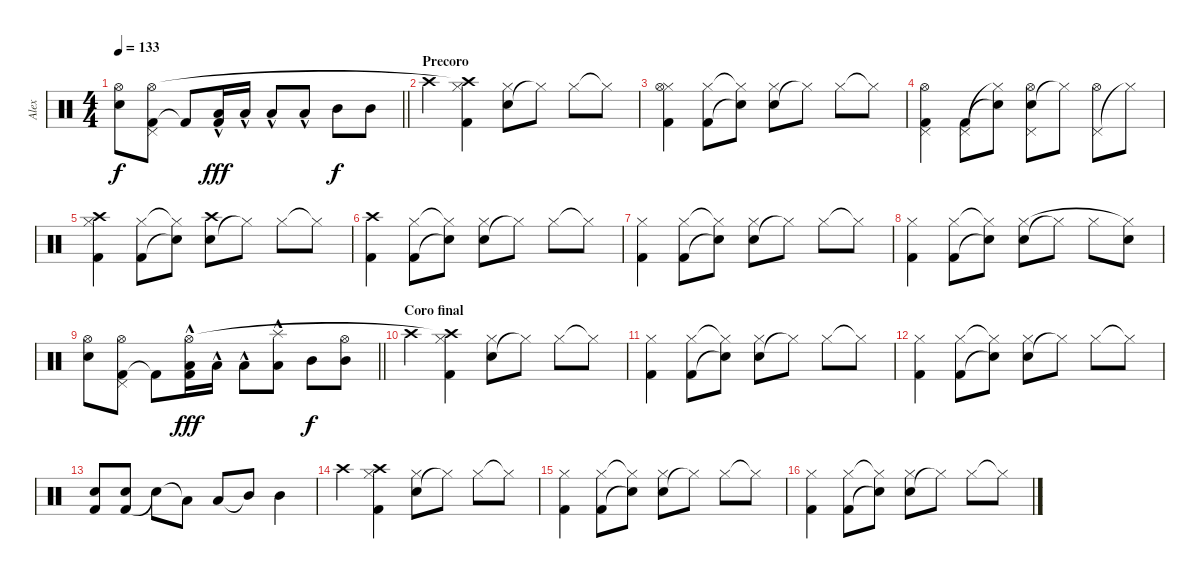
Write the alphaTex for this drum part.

\track ("Alex" "Alex") {instrument percussion}
\staff {score}
\articulation defaults
\ts (4 4)
\tempo 133
\clef neutral
\barLineRight lightlight
\ks c
("Electric Snare (hit)" "Hi-Hat (open)").8{dy f} ("Kick (hit) 2" "Pedal Hi-Hat (hit)" "Hi-Hat (open)").8 "Kick (hit) 2"{t}.8 ("Low Floor Tom (hit)"{hac} "Kick (hit) 2").16{dy fff} "Low Tom (hit)"{hac}.16 "Low Tom (hit)"{hac}.8 "Low Tom (hit)"{hac}.8 "Mid Tom (hit)".8{dy f} "Mid Tom (hit)".8 |
\section ("" "Precoro")
"Crash high (hit)".4 ("Kick (hit) 2" "Hi-Hat (closed)" "Crash high (hit)"{t}).4 ("Electric Snare (hit)" "Hi-Hat (closed)").8 "Hi-Hat (closed)"{t}.8 "Hi-Hat (closed)".8 "Hi-Hat (closed)"{t}.8 |
("Kick (hit) 2" "Hi-Hat (closed)" "Hi-Hat (open)").4 ("Kick (hit) 2" "Hi-Hat (closed)").8 ("Electric Snare (hit)"{t} "Hi-Hat (closed)"{t}).8 ("Electric Snare (hit)" "Hi-Hat (closed)").8 "Hi-Hat (closed)"{t}.8 "Hi-Hat (closed)".8 "Hi-Hat (closed)"{t}.8 |
("Kick (hit) 2" "Pedal Hi-Hat (hit)" "Hi-Hat (open)").4 ("Kick (hit) 2" "Pedal Hi-Hat (hit)").8 ("Electric Snare (hit)"{t} "Hi-Hat (closed)"{t}).8 ("Electric Snare (hit)" "Pedal Hi-Hat (hit)" "Hi-Hat (open)").8 "Hi-Hat (closed)"{t}.8 ("Pedal Hi-Hat (hit)" "Hi-Hat (open)").8 "Hi-Hat (closed)"{t}.8 |
("Kick (hit) 2" "Hi-Hat (closed)" "Crash high (hit)").4 ("Kick (hit) 2" "Hi-Hat (closed)").8 ("Electric Snare (hit)"{t} "Hi-Hat (closed)"{t}).8 ("Electric Snare (hit)" "Crash high (hit)").8 "Hi-Hat (closed)"{t}.8 "Hi-Hat (closed)".8 "Hi-Hat (closed)"{t}.8 |
("Kick (hit) 2" "Crash high (hit)").4 ("Kick (hit) 2" "Hi-Hat (closed)").8 ("Electric Snare (hit)"{t} "Hi-Hat (closed)"{t}).8 ("Electric Snare (hit)" "Hi-Hat (closed)").8 "Hi-Hat (closed)"{t}.8 "Hi-Hat (closed)".8 "Hi-Hat (closed)"{t}.8 |
("Kick (hit) 2" "Hi-Hat (closed)").4 ("Kick (hit) 2" "Hi-Hat (closed)").8 ("Electric Snare (hit)"{t} "Hi-Hat (closed)"{t}).8 ("Electric Snare (hit)" "Hi-Hat (closed)").8 "Hi-Hat (closed)"{t}.8 "Hi-Hat (closed)".8 "Hi-Hat (closed)"{t}.8 |
("Kick (hit) 2" "Hi-Hat (closed)").4 ("Kick (hit) 2" "Hi-Hat (closed)").8 ("Electric Snare (hit)"{t} "Hi-Hat (closed)"{t}).8 ("Electric Snare (hit)" "Hi-Hat (closed)").8 "Hi-Hat (closed)"{t}.8 "Hi-Hat (closed)".8 ("Electric Snare (hit)" "Hi-Hat (closed)"{t}).8 |
\barLineRight lightlight
("Electric Snare (hit)" "Hi-Hat (open)").8 ("Kick (hit) 2" "Pedal Hi-Hat (hit)" "Hi-Hat (open)").8 "Kick (hit) 2"{t}.8 ("Low Floor Tom (hit)"{hac} "Kick (hit) 2" "Hi-Hat (open)").16{dy fff} "Low Tom (hit)"{hac}.16 "Low Tom (hit)"{hac}.8 ("Low Tom (hit)"{hac} "Splash (hit)").8 "Mid Tom (hit)".8{dy f} ("Mid Tom (hit)" "Hi-Hat (open)").8 |
\section ("" "Coro final")
"Crash high (hit)".4 ("Kick (hit) 2" "Hi-Hat (closed)" "Crash high (hit)"{t}).4 ("Electric Snare (hit)" "Hi-Hat (closed)").8 "Hi-Hat (closed)"{t}.8 "Hi-Hat (closed)".8 "Hi-Hat (closed)"{t}.8 |
("Kick (hit) 2" "Hi-Hat (closed)").4 ("Kick (hit) 2" "Hi-Hat (closed)").8 ("Electric Snare (hit)"{t} "Hi-Hat (closed)"{t}).8 ("Electric Snare (hit)" "Hi-Hat (closed)").8 "Hi-Hat (closed)"{t}.8 "Hi-Hat (closed)".8 "Hi-Hat (closed)"{t}.8 |
("Kick (hit) 2" "Hi-Hat (closed)").4 ("Kick (hit) 2" "Hi-Hat (closed)").8 ("Electric Snare (hit)"{t} "Hi-Hat (closed)"{t}).8 ("Electric Snare (hit)" "Hi-Hat (closed)").8 "Hi-Hat (closed)"{t}.8 "Hi-Hat (closed)".8 "Hi-Hat (closed)"{t}.8 |
("Kick (hit) 2" "Electric Snare (hit)").8 ("Kick (hit) 2" "Electric Snare (hit)").8 "Electric Snare (hit)"{t}.8 "Low Tom (hit)"{t}.8 "Low Tom (hit)".8 "Mid Tom (hit)"{t}.8 "Mid Tom (hit)".4 |
"Crash high (hit)".4 ("Kick (hit) 2" "Hi-Hat (closed)" "Crash high (hit)").4 ("Electric Snare (hit)" "Hi-Hat (closed)").8 "Hi-Hat (closed)"{t}.8 "Hi-Hat (closed)".8 "Hi-Hat (closed)"{t}.8 |
("Kick (hit) 2" "Hi-Hat (closed)").4 ("Kick (hit) 2" "Hi-Hat (closed)").8 ("Electric Snare (hit)"{t} "Hi-Hat (closed)"{t}).8 ("Electric Snare (hit)" "Hi-Hat (closed)").8 "Hi-Hat (closed)"{t}.8 "Hi-Hat (closed)".8 "Hi-Hat (closed)"{t}.8 |
("Kick (hit) 2" "Hi-Hat (closed)").4 ("Kick (hit) 2" "Hi-Hat (closed)").8 ("Electric Snare (hit)"{t} "Hi-Hat (closed)"{t}).8 ("Electric Snare (hit)" "Hi-Hat (closed)").8 "Hi-Hat (closed)"{t}.8 "Hi-Hat (closed)".8 "Hi-Hat (closed)"{t}.8
